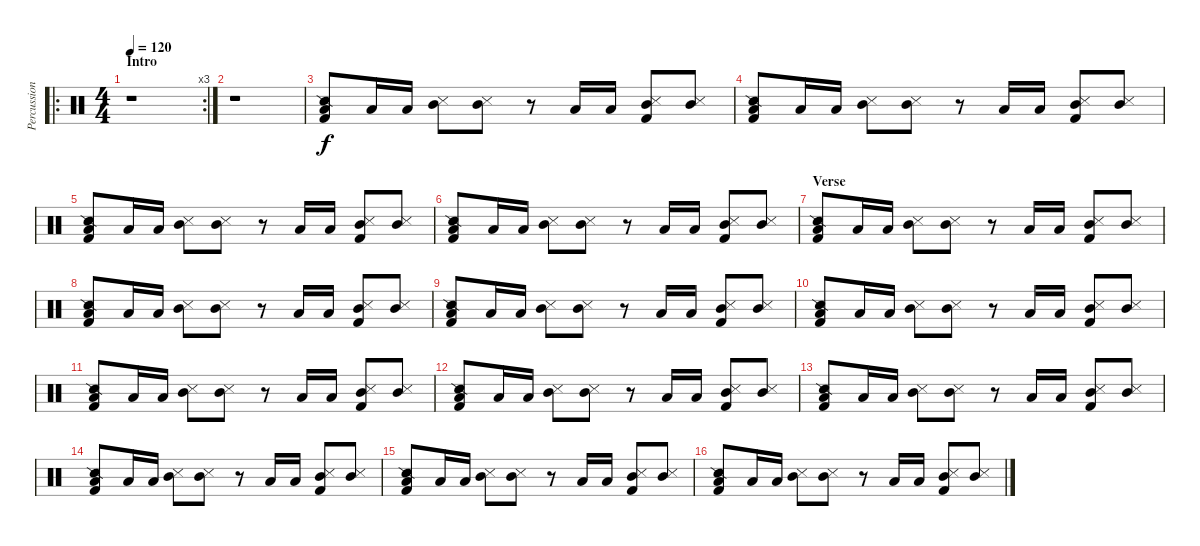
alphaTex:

\track ("Percussion" "Percussion") {instrument percussion}
\staff {score}
\articulation defaults
\ro
\rc 3
\ts (4 4)
\section ("" "Intro")
\tempo 120
\clef neutral
\ks c
r.1{dy f} |
r.1 |
("Kick (hit) 2" "Snare (side stick) 2" "Low Floor Tom (hit)").8 "Low Tom (hit)".16 "Low Tom (hit)".16 ("Snare (side stick) 3" "Mid Tom (hit)").8 ("Snare (side stick) 3" "Mid Tom (hit)").8 r.8 "Low Tom (hit)".16 "Low Tom (hit)".16 ("Kick (hit) 2" "Snare (side stick) 3" "Mid Tom (hit)").8 ("Snare (side stick) 3" "Mid Tom (hit)").8 |
("Kick (hit) 2" "Snare (side stick) 2" "Low Floor Tom (hit)").8 "Low Tom (hit)".16 "Low Tom (hit)".16 ("Snare (side stick) 3" "Mid Tom (hit)").8 ("Snare (side stick) 3" "Mid Tom (hit)").8 r.8 "Low Tom (hit)".16 "Low Tom (hit)".16 ("Kick (hit) 2" "Snare (side stick) 3" "Mid Tom (hit)").8 ("Snare (side stick) 3" "Mid Tom (hit)").8 |
("Kick (hit) 2" "Snare (side stick) 2" "Low Floor Tom (hit)").8 "Low Tom (hit)".16 "Low Tom (hit)".16 ("Snare (side stick) 3" "Mid Tom (hit)").8 ("Snare (side stick) 3" "Mid Tom (hit)").8 r.8 "Low Tom (hit)".16 "Low Tom (hit)".16 ("Kick (hit) 2" "Snare (side stick) 3" "Mid Tom (hit)").8 ("Snare (side stick) 3" "Mid Tom (hit)").8 |
("Kick (hit) 2" "Snare (side stick) 2" "Low Floor Tom (hit)").8 "Low Tom (hit)".16 "Low Tom (hit)".16 ("Snare (side stick) 3" "Mid Tom (hit)").8 ("Snare (side stick) 3" "Mid Tom (hit)").8 r.8 "Low Tom (hit)".16 "Low Tom (hit)".16 ("Kick (hit) 2" "Snare (side stick) 3" "Mid Tom (hit)").8 ("Snare (side stick) 3" "Mid Tom (hit)").8 |
\section ("" "Verse")
("Kick (hit) 2" "Snare (side stick) 2" "Low Floor Tom (hit)").8 "Low Tom (hit)".16 "Low Tom (hit)".16 ("Snare (side stick) 3" "Mid Tom (hit)").8 ("Snare (side stick) 3" "Mid Tom (hit)").8 r.8 "Low Tom (hit)".16 "Low Tom (hit)".16 ("Kick (hit) 2" "Snare (side stick) 3" "Mid Tom (hit)").8 ("Snare (side stick) 3" "Mid Tom (hit)").8 |
("Kick (hit) 2" "Snare (side stick) 2" "Low Floor Tom (hit)").8 "Low Tom (hit)".16 "Low Tom (hit)".16 ("Snare (side stick) 3" "Mid Tom (hit)").8 ("Snare (side stick) 3" "Mid Tom (hit)").8 r.8 "Low Tom (hit)".16 "Low Tom (hit)".16 ("Kick (hit) 2" "Snare (side stick) 3" "Mid Tom (hit)").8 ("Snare (side stick) 3" "Mid Tom (hit)").8 |
("Kick (hit) 2" "Snare (side stick) 2" "Low Floor Tom (hit)").8 "Low Tom (hit)".16 "Low Tom (hit)".16 ("Snare (side stick) 3" "Mid Tom (hit)").8 ("Snare (side stick) 3" "Mid Tom (hit)").8 r.8 "Low Tom (hit)".16 "Low Tom (hit)".16 ("Kick (hit) 2" "Snare (side stick) 3" "Mid Tom (hit)").8 ("Snare (side stick) 3" "Mid Tom (hit)").8 |
("Kick (hit) 2" "Snare (side stick) 2" "Low Floor Tom (hit)").8 "Low Tom (hit)".16 "Low Tom (hit)".16 ("Snare (side stick) 3" "Mid Tom (hit)").8 ("Snare (side stick) 3" "Mid Tom (hit)").8 r.8 "Low Tom (hit)".16 "Low Tom (hit)".16 ("Kick (hit) 2" "Snare (side stick) 3" "Mid Tom (hit)").8 ("Snare (side stick) 3" "Mid Tom (hit)").8 |
("Kick (hit) 2" "Snare (side stick) 2" "Low Floor Tom (hit)").8 "Low Tom (hit)".16 "Low Tom (hit)".16 ("Snare (side stick) 3" "Mid Tom (hit)").8 ("Snare (side stick) 3" "Mid Tom (hit)").8 r.8 "Low Tom (hit)".16 "Low Tom (hit)".16 ("Kick (hit) 2" "Snare (side stick) 3" "Mid Tom (hit)").8 ("Snare (side stick) 3" "Mid Tom (hit)").8 |
("Kick (hit) 2" "Snare (side stick) 2" "Low Floor Tom (hit)").8 "Low Tom (hit)".16 "Low Tom (hit)".16 ("Snare (side stick) 3" "Mid Tom (hit)").8 ("Snare (side stick) 3" "Mid Tom (hit)").8 r.8 "Low Tom (hit)".16 "Low Tom (hit)".16 ("Kick (hit) 2" "Snare (side stick) 3" "Mid Tom (hit)").8 ("Snare (side stick) 3" "Mid Tom (hit)").8 |
("Kick (hit) 2" "Snare (side stick) 2" "Low Floor Tom (hit)").8 "Low Tom (hit)".16 "Low Tom (hit)".16 ("Snare (side stick) 3" "Mid Tom (hit)").8 ("Snare (side stick) 3" "Mid Tom (hit)").8 r.8 "Low Tom (hit)".16 "Low Tom (hit)".16 ("Kick (hit) 2" "Snare (side stick) 3" "Mid Tom (hit)").8 ("Snare (side stick) 3" "Mid Tom (hit)").8 |
("Kick (hit) 2" "Snare (side stick) 2" "Low Floor Tom (hit)").8 "Low Tom (hit)".16 "Low Tom (hit)".16 ("Snare (side stick) 3" "Mid Tom (hit)").8 ("Snare (side stick) 3" "Mid Tom (hit)").8 r.8 "Low Tom (hit)".16 "Low Tom (hit)".16 ("Kick (hit) 2" "Snare (side stick) 3" "Mid Tom (hit)").8 ("Snare (side stick) 3" "Mid Tom (hit)").8 |
("Kick (hit) 2" "Snare (side stick) 2" "Low Floor Tom (hit)").8 "Low Tom (hit)".16 "Low Tom (hit)".16 ("Snare (side stick) 3" "Mid Tom (hit)").8 ("Snare (side stick) 3" "Mid Tom (hit)").8 r.8 "Low Tom (hit)".16 "Low Tom (hit)".16 ("Kick (hit) 2" "Snare (side stick) 3" "Mid Tom (hit)").8 ("Snare (side stick) 3" "Mid Tom (hit)").8 |
("Kick (hit) 2" "Snare (side stick) 2" "Low Floor Tom (hit)").8 "Low Tom (hit)".16 "Low Tom (hit)".16 ("Snare (side stick) 3" "Mid Tom (hit)").8 ("Snare (side stick) 3" "Mid Tom (hit)").8 r.8 "Low Tom (hit)".16 "Low Tom (hit)".16 ("Kick (hit) 2" "Snare (side stick) 3" "Mid Tom (hit)").8 ("Snare (side stick) 3" "Mid Tom (hit)").8
